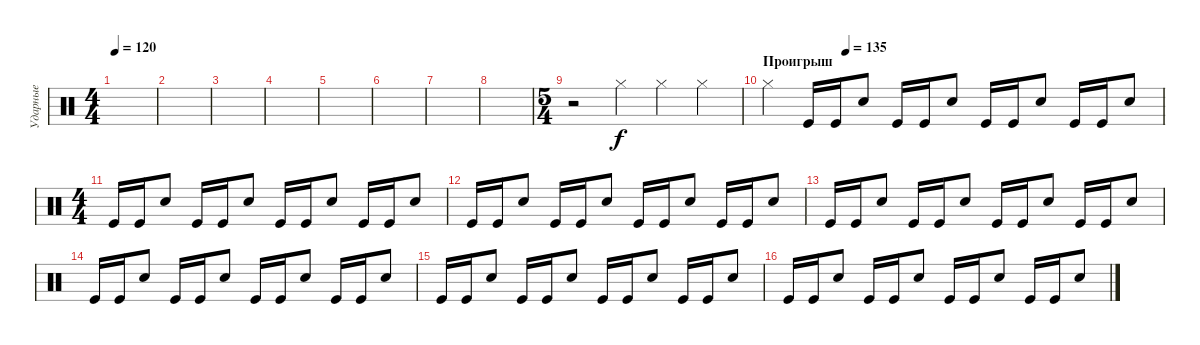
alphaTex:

\track ("Ударные" "Ударные") {instrument percussion}
\staff {score}
\articulation defaults
\ts (4 4)
\tempo 120
\clef neutral
\ks c
|
|
|
|
|
|
|
|
\ts (5 4)
r.2 "Hi-Hat (closed)".4 "Hi-Hat (closed)".4 "Hi-Hat (closed)".4 |
\section ("" "Проигрыш")
\tempo (135 0.2)
"Hi-Hat (closed)".4 "Kick (hit)".16 "Kick (hit)".16 "Electric Snare (hit)".8 "Kick (hit)".16 "Kick (hit)".16 "Electric Snare (hit)".8 "Kick (hit)".16 "Kick (hit)".16 "Electric Snare (hit)".8 "Kick (hit)".16 "Kick (hit)".16 "Electric Snare (hit)".8 |
\ts (4 4)
"Kick (hit)".16 "Kick (hit)".16 "Electric Snare (hit)".8 "Kick (hit)".16 "Kick (hit)".16 "Electric Snare (hit)".8 "Kick (hit)".16 "Kick (hit)".16 "Electric Snare (hit)".8 "Kick (hit)".16 "Kick (hit)".16 "Electric Snare (hit)".8 |
"Kick (hit)".16 "Kick (hit)".16 "Electric Snare (hit)".8 "Kick (hit)".16 "Kick (hit)".16 "Electric Snare (hit)".8 "Kick (hit)".16 "Kick (hit)".16 "Electric Snare (hit)".8 "Kick (hit)".16 "Kick (hit)".16 "Electric Snare (hit)".8 |
"Kick (hit)".16 "Kick (hit)".16 "Electric Snare (hit)".8 "Kick (hit)".16 "Kick (hit)".16 "Electric Snare (hit)".8 "Kick (hit)".16 "Kick (hit)".16 "Electric Snare (hit)".8 "Kick (hit)".16 "Kick (hit)".16 "Electric Snare (hit)".8 |
"Kick (hit)".16 "Kick (hit)".16 "Electric Snare (hit)".8 "Kick (hit)".16 "Kick (hit)".16 "Electric Snare (hit)".8 "Kick (hit)".16 "Kick (hit)".16 "Electric Snare (hit)".8 "Kick (hit)".16 "Kick (hit)".16 "Electric Snare (hit)".8 |
"Kick (hit)".16 "Kick (hit)".16 "Electric Snare (hit)".8 "Kick (hit)".16 "Kick (hit)".16 "Electric Snare (hit)".8 "Kick (hit)".16 "Kick (hit)".16 "Electric Snare (hit)".8 "Kick (hit)".16 "Kick (hit)".16 "Electric Snare (hit)".8 |
"Kick (hit)".16 "Kick (hit)".16 "Electric Snare (hit)".8 "Kick (hit)".16 "Kick (hit)".16 "Electric Snare (hit)".8 "Kick (hit)".16 "Kick (hit)".16 "Electric Snare (hit)".8 "Kick (hit)".16 "Kick (hit)".16 "Electric Snare (hit)".8
